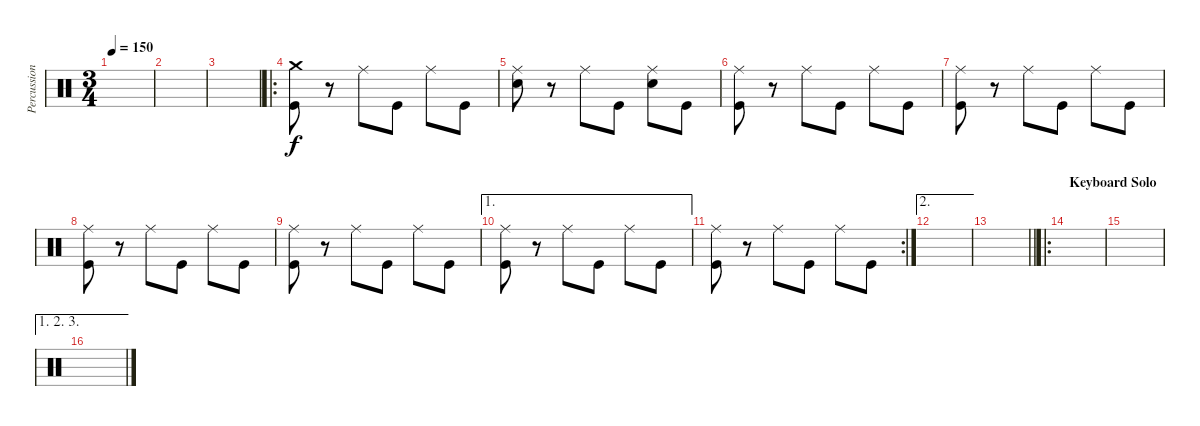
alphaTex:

\track ("Percussion" "Percussion") {instrument percussion}
\staff {score}
\articulation defaults
\ts (3 4)
\tempo 150
\clef neutral
\ks c
|
|
|
\ro
("Crash medium (hit)" "Kick (hit)").8 r.8 "Ride (middle)".8 "Kick (hit)".8 "Ride (middle)".8 "Kick (hit)".8 |
("Ride (middle)" "Snare (hit) 2").8 r.8 "Ride (middle)".8 "Kick (hit)".8 ("Ride (middle)" "Snare (hit) 2").8 "Kick (hit)".8 |
("Ride (middle)" "Kick (hit)").8 r.8 "Ride (middle)".8 "Kick (hit)".8 "Ride (middle)".8 "Kick (hit)".8 |
("Ride (middle)" "Kick (hit)").8 r.8 "Ride (middle)".8 "Kick (hit)".8 "Ride (middle)".8 "Kick (hit)".8 |
("Ride (middle)" "Kick (hit)").8 r.8 "Ride (middle)".8 "Kick (hit)".8 "Ride (middle)".8 "Kick (hit)".8 |
("Ride (middle)" "Kick (hit)").8 r.8 "Ride (middle)".8 "Kick (hit)".8 "Ride (middle)".8 "Kick (hit)".8 |
\ae 1
("Ride (middle)" "Kick (hit)").8 r.8 "Ride (middle)".8 "Kick (hit)".8 "Ride (middle)".8 "Kick (hit)".8 |
\rc 2
("Ride (middle)" "Kick (hit)").8 r.8 "Ride (middle)".8 "Kick (hit)".8 "Ride (middle)".8 "Kick (hit)".8 |
\ae 2
|
\barLineRight lightlight
|
\ro
\section ("" "Keyboard Solo")
|
|
\ae (1 2 3)
